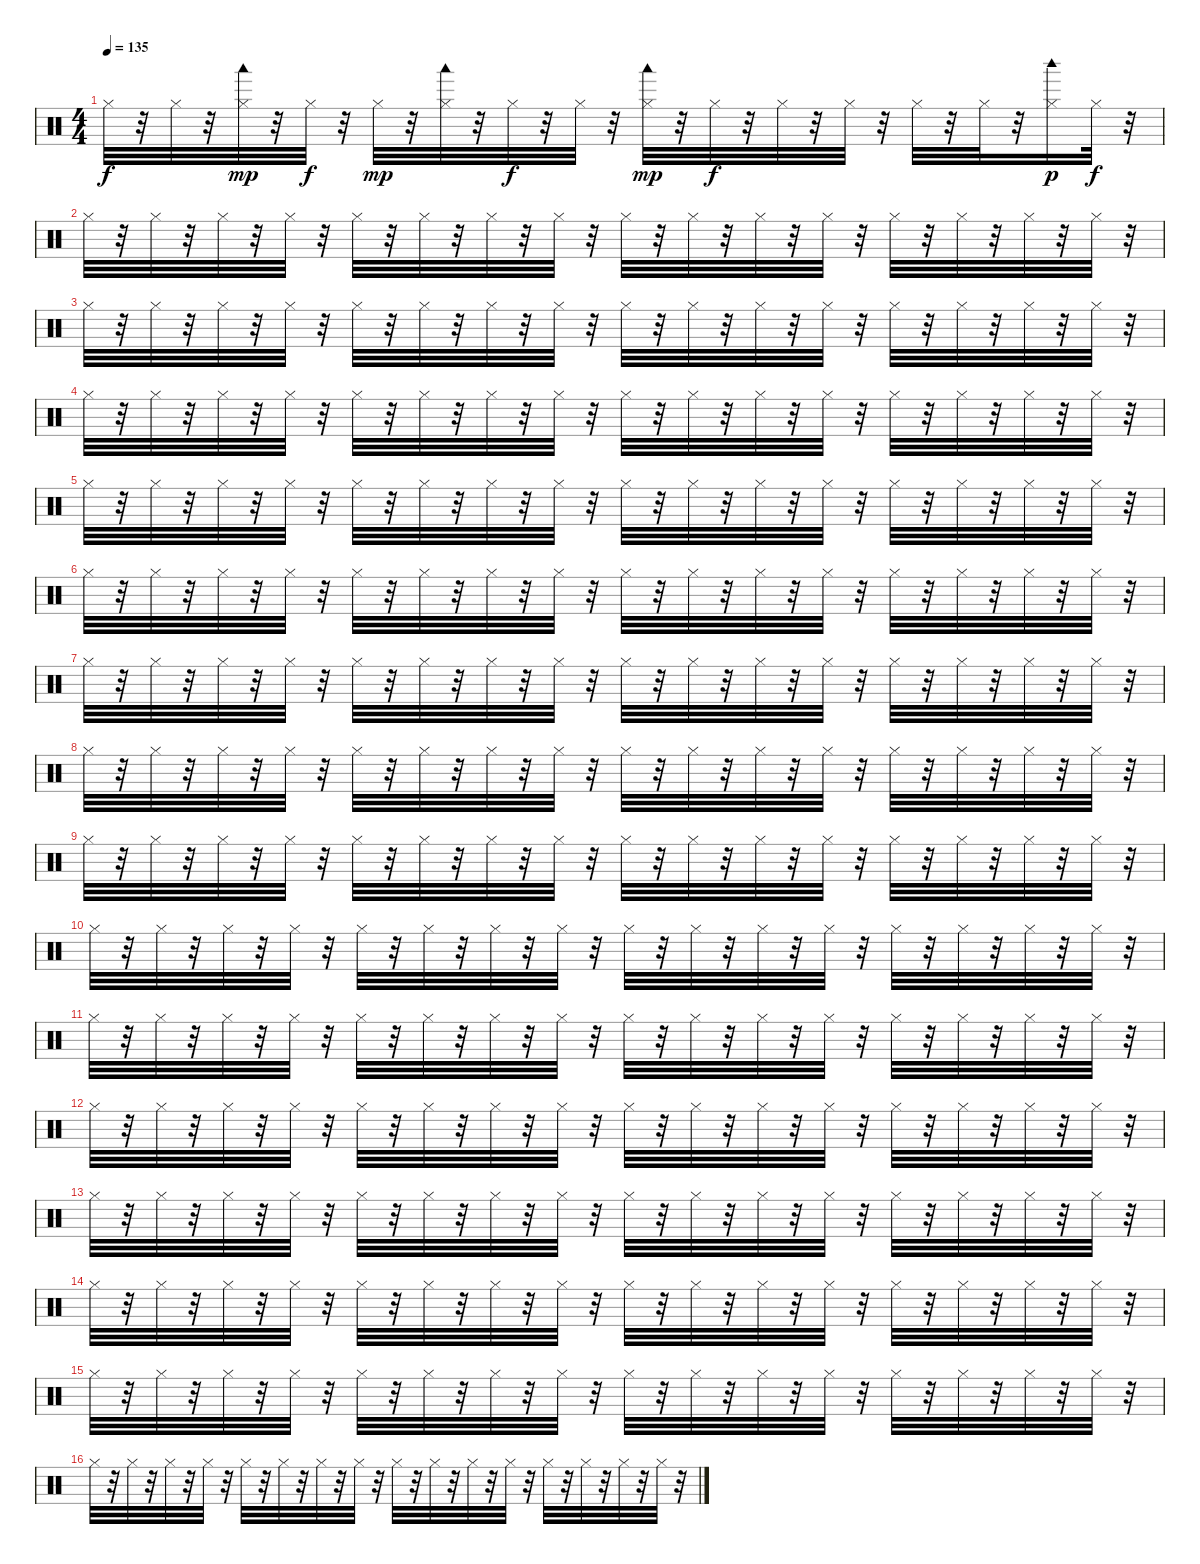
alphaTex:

\track "" {instrument percussion}
\staff {score}
\articulation defaults
\ts (4 4)
\tempo 135
\clef neutral
\ks c "Hi-Hat (closed)".32{dy f}
r.32 "Hi-Hat (closed)".32 r.32 ("Hi-Hat (closed)" "Woodblock low (hit)").32{dy mp} r.32 "Hi-Hat (closed)".32{dy f} r.32 "Hi-Hat (closed)".32{dy mp} r.32 ("Woodblock low (hit)" "Hi-Hat (closed)").32 r.32 "Hi-Hat (closed)".32{dy f} r.32 "Hi-Hat (closed)".32 r.32 ("Hi-Hat (closed)" "Woodblock low (hit)").32{dy mp} r.32 "Hi-Hat (closed)".32{dy f} r.32 "Hi-Hat (closed)".32 r.32 "Hi-Hat (closed)".32 r.32 "Hi-Hat (closed)".32 r.32 "Hi-Hat (closed)".32 r.32 ("Hi-Hat (closed)" "Woodblock high (hit)").16{dy p} "Hi-Hat (closed)".32{dy f} r.32 |
"Hi-Hat (closed)".32 r.32 "Hi-Hat (closed)".32 r.32 "Hi-Hat (closed)".32 r.32 "Hi-Hat (closed)".32 r.32 "Hi-Hat (closed)".32 r.32 "Hi-Hat (closed)".32 r.32 "Hi-Hat (closed)".32 r.32 "Hi-Hat (closed)".32 r.32 "Hi-Hat (closed)".32 r.32 "Hi-Hat (closed)".32 r.32 "Hi-Hat (closed)".32 r.32 "Hi-Hat (closed)".32 r.32 "Hi-Hat (closed)".32 r.32 "Hi-Hat (closed)".32 r.32 "Hi-Hat (closed)".32 r.32 "Hi-Hat (closed)".32 r.32 |
"Hi-Hat (closed)".32 r.32 "Hi-Hat (closed)".32 r.32 "Hi-Hat (closed)".32 r.32 "Hi-Hat (closed)".32 r.32 "Hi-Hat (closed)".32 r.32 "Hi-Hat (closed)".32 r.32 "Hi-Hat (closed)".32 r.32 "Hi-Hat (closed)".32 r.32 "Hi-Hat (closed)".32 r.32 "Hi-Hat (closed)".32 r.32 "Hi-Hat (closed)".32 r.32 "Hi-Hat (closed)".32 r.32 "Hi-Hat (closed)".32 r.32 "Hi-Hat (closed)".32 r.32 "Hi-Hat (closed)".32 r.32 "Hi-Hat (closed)".32 r.32 |
"Hi-Hat (closed)".32 r.32 "Hi-Hat (closed)".32 r.32 "Hi-Hat (closed)".32 r.32 "Hi-Hat (closed)".32 r.32 "Hi-Hat (closed)".32 r.32 "Hi-Hat (closed)".32 r.32 "Hi-Hat (closed)".32 r.32 "Hi-Hat (closed)".32 r.32 "Hi-Hat (closed)".32 r.32 "Hi-Hat (closed)".32 r.32 "Hi-Hat (closed)".32 r.32 "Hi-Hat (closed)".32 r.32 "Hi-Hat (closed)".32 r.32 "Hi-Hat (closed)".32 r.32 "Hi-Hat (closed)".32 r.32 "Hi-Hat (closed)".32 r.32 |
"Hi-Hat (closed)".32 r.32 "Hi-Hat (closed)".32 r.32 "Hi-Hat (closed)".32 r.32 "Hi-Hat (closed)".32 r.32 "Hi-Hat (closed)".32 r.32 "Hi-Hat (closed)".32 r.32 "Hi-Hat (closed)".32 r.32 "Hi-Hat (closed)".32 r.32 "Hi-Hat (closed)".32 r.32 "Hi-Hat (closed)".32 r.32 "Hi-Hat (closed)".32 r.32 "Hi-Hat (closed)".32 r.32 "Hi-Hat (closed)".32 r.32 "Hi-Hat (closed)".32 r.32 "Hi-Hat (closed)".32 r.32 "Hi-Hat (closed)".32 r.32 |
"Hi-Hat (closed)".32 r.32 "Hi-Hat (closed)".32 r.32 "Hi-Hat (closed)".32 r.32 "Hi-Hat (closed)".32 r.32 "Hi-Hat (closed)".32 r.32 "Hi-Hat (closed)".32 r.32 "Hi-Hat (closed)".32 r.32 "Hi-Hat (closed)".32 r.32 "Hi-Hat (closed)".32 r.32 "Hi-Hat (closed)".32 r.32 "Hi-Hat (closed)".32 r.32 "Hi-Hat (closed)".32 r.32 "Hi-Hat (closed)".32 r.32 "Hi-Hat (closed)".32 r.32 "Hi-Hat (closed)".32 r.32 "Hi-Hat (closed)".32 r.32 |
"Hi-Hat (closed)".32 r.32 "Hi-Hat (closed)".32 r.32 "Hi-Hat (closed)".32 r.32 "Hi-Hat (closed)".32 r.32 "Hi-Hat (closed)".32 r.32 "Hi-Hat (closed)".32 r.32 "Hi-Hat (closed)".32 r.32 "Hi-Hat (closed)".32 r.32 "Hi-Hat (closed)".32 r.32 "Hi-Hat (closed)".32 r.32 "Hi-Hat (closed)".32 r.32 "Hi-Hat (closed)".32 r.32 "Hi-Hat (closed)".32 r.32 "Hi-Hat (closed)".32 r.32 "Hi-Hat (closed)".32 r.32 "Hi-Hat (closed)".32 r.32 |
"Hi-Hat (closed)".32 r.32 "Hi-Hat (closed)".32 r.32 "Hi-Hat (closed)".32 r.32 "Hi-Hat (closed)".32 r.32 "Hi-Hat (closed)".32 r.32 "Hi-Hat (closed)".32 r.32 "Hi-Hat (closed)".32 r.32 "Hi-Hat (closed)".32 r.32 "Hi-Hat (closed)".32 r.32 "Hi-Hat (closed)".32 r.32 "Hi-Hat (closed)".32 r.32 "Hi-Hat (closed)".32 r.32 "Hi-Hat (closed)".32 r.32 "Hi-Hat (closed)".32 r.32 "Hi-Hat (closed)".32 r.32 "Hi-Hat (closed)".32 r.32 |
"Hi-Hat (closed)".32 r.32 "Hi-Hat (closed)".32 r.32 "Hi-Hat (closed)".32 r.32 "Hi-Hat (closed)".32 r.32 "Hi-Hat (closed)".32 r.32 "Hi-Hat (closed)".32 r.32 "Hi-Hat (closed)".32 r.32 "Hi-Hat (closed)".32 r.32 "Hi-Hat (closed)".32 r.32 "Hi-Hat (closed)".32 r.32 "Hi-Hat (closed)".32 r.32 "Hi-Hat (closed)".32 r.32 "Hi-Hat (closed)".32 r.32 "Hi-Hat (closed)".32 r.32 "Hi-Hat (closed)".32 r.32 "Hi-Hat (closed)".32 r.32 |
"Hi-Hat (closed)".32 r.32 "Hi-Hat (closed)".32 r.32 "Hi-Hat (closed)".32 r.32 "Hi-Hat (closed)".32 r.32 "Hi-Hat (closed)".32 r.32 "Hi-Hat (closed)".32 r.32 "Hi-Hat (closed)".32 r.32 "Hi-Hat (closed)".32 r.32 "Hi-Hat (closed)".32 r.32 "Hi-Hat (closed)".32 r.32 "Hi-Hat (closed)".32 r.32 "Hi-Hat (closed)".32 r.32 "Hi-Hat (closed)".32 r.32 "Hi-Hat (closed)".32 r.32 "Hi-Hat (closed)".32 r.32 "Hi-Hat (closed)".32 r.32 |
"Hi-Hat (closed)".32 r.32 "Hi-Hat (closed)".32 r.32 "Hi-Hat (closed)".32 r.32 "Hi-Hat (closed)".32 r.32 "Hi-Hat (closed)".32 r.32 "Hi-Hat (closed)".32 r.32 "Hi-Hat (closed)".32 r.32 "Hi-Hat (closed)".32 r.32 "Hi-Hat (closed)".32 r.32 "Hi-Hat (closed)".32 r.32 "Hi-Hat (closed)".32 r.32 "Hi-Hat (closed)".32 r.32 "Hi-Hat (closed)".32 r.32 "Hi-Hat (closed)".32 r.32 "Hi-Hat (closed)".32 r.32 "Hi-Hat (closed)".32 r.32 |
"Hi-Hat (closed)".32 r.32 "Hi-Hat (closed)".32 r.32 "Hi-Hat (closed)".32 r.32 "Hi-Hat (closed)".32 r.32 "Hi-Hat (closed)".32 r.32 "Hi-Hat (closed)".32 r.32 "Hi-Hat (closed)".32 r.32 "Hi-Hat (closed)".32 r.32 "Hi-Hat (closed)".32 r.32 "Hi-Hat (closed)".32 r.32 "Hi-Hat (closed)".32 r.32 "Hi-Hat (closed)".32 r.32 "Hi-Hat (closed)".32 r.32 "Hi-Hat (closed)".32 r.32 "Hi-Hat (closed)".32 r.32 "Hi-Hat (closed)".32 r.32 |
"Hi-Hat (closed)".32 r.32 "Hi-Hat (closed)".32 r.32 "Hi-Hat (closed)".32 r.32 "Hi-Hat (closed)".32 r.32 "Hi-Hat (closed)".32 r.32 "Hi-Hat (closed)".32 r.32 "Hi-Hat (closed)".32 r.32 "Hi-Hat (closed)".32 r.32 "Hi-Hat (closed)".32 r.32 "Hi-Hat (closed)".32 r.32 "Hi-Hat (closed)".32 r.32 "Hi-Hat (closed)".32 r.32 "Hi-Hat (closed)".32 r.32 "Hi-Hat (closed)".32 r.32 "Hi-Hat (closed)".32 r.32 "Hi-Hat (closed)".32 r.32 |
"Hi-Hat (closed)".32 r.32 "Hi-Hat (closed)".32 r.32 "Hi-Hat (closed)".32 r.32 "Hi-Hat (closed)".32 r.32 "Hi-Hat (closed)".32 r.32 "Hi-Hat (closed)".32 r.32 "Hi-Hat (closed)".32 r.32 "Hi-Hat (closed)".32 r.32 "Hi-Hat (closed)".32 r.32 "Hi-Hat (closed)".32 r.32 "Hi-Hat (closed)".32 r.32 "Hi-Hat (closed)".32 r.32 "Hi-Hat (closed)".32 r.32 "Hi-Hat (closed)".32 r.32 "Hi-Hat (closed)".32 r.32 "Hi-Hat (closed)".32 r.32 |
"Hi-Hat (closed)".32 r.32 "Hi-Hat (closed)".32 r.32 "Hi-Hat (closed)".32 r.32 "Hi-Hat (closed)".32 r.32 "Hi-Hat (closed)".32 r.32 "Hi-Hat (closed)".32 r.32 "Hi-Hat (closed)".32 r.32 "Hi-Hat (closed)".32 r.32 "Hi-Hat (closed)".32 r.32 "Hi-Hat (closed)".32 r.32 "Hi-Hat (closed)".32 r.32 "Hi-Hat (closed)".32 r.32 "Hi-Hat (closed)".32 r.32 "Hi-Hat (closed)".32 r.32 "Hi-Hat (closed)".32 r.32 "Hi-Hat (closed)".32 r.32 |
"Hi-Hat (closed)".32 r.32 "Hi-Hat (closed)".32 r.32 "Hi-Hat (closed)".32 r.32 "Hi-Hat (closed)".32 r.32 "Hi-Hat (closed)".32 r.32 "Hi-Hat (closed)".32 r.32 "Hi-Hat (closed)".32 r.32 "Hi-Hat (closed)".32 r.32 "Hi-Hat (closed)".32 r.32 "Hi-Hat (closed)".32 r.32 "Hi-Hat (closed)".32 r.32 "Hi-Hat (closed)".32 r.32 "Hi-Hat (closed)".32 r.32 "Hi-Hat (closed)".32 r.32 "Hi-Hat (closed)".32 r.32 "Hi-Hat (closed)".32 r.32
